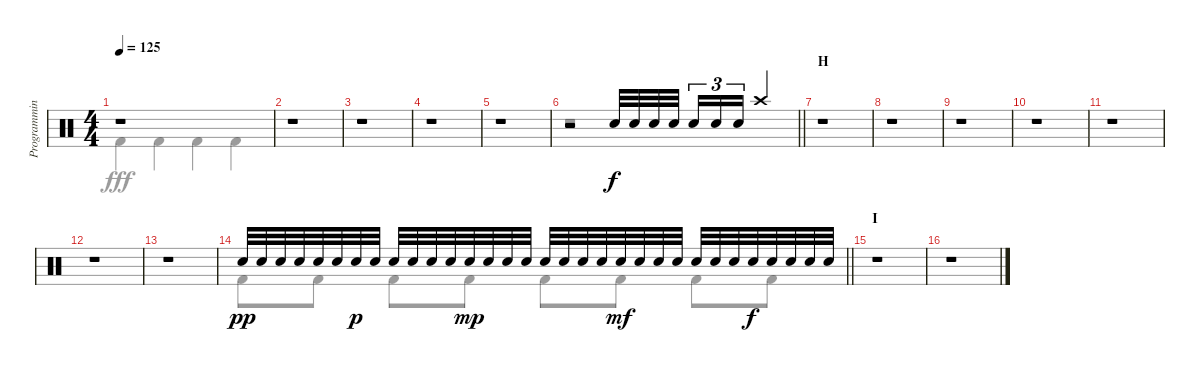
\track ("Programming" "Programmin") {instrument percussion}
\staff {score}
\articulation defaults
\voice
\ts (4 4)
\tempo 125
\clef neutral
\ks c
r.1{dy f} |
r.1 |
r.1 |
r.1 |
r.1 |
\barLineRight lightlight
r.2 "Electric Snare (hit)".32 "Electric Snare (hit)".32 "Electric Snare (hit)".32 "Electric Snare (hit)".32{beam splitsecondary} "Electric Snare (hit)".16{tu (3 2)} "Electric Snare (hit)".16{tu (3 2)} "Electric Snare (hit)".16{tu (3 2)} "Crash high (hit)".4 |
\section ("" "H")
r.1 |
r.1 |
r.1 |
r.1 |
r.1 |
r.1 |
r.1 |
\barLineRight lightlight "Electric Snare (hit)".32{dy pp} "Electric Snare (hit)".32 "Electric Snare (hit)".32 "Electric Snare (hit)".32 "Electric Snare (hit)".32 "Electric Snare (hit)".32 "Electric Snare (hit)".32{dy p} "Electric Snare (hit)".32 "Electric Snare (hit)".32 "Electric Snare (hit)".32 "Electric Snare (hit)".32 "Electric Snare (hit)".32 "Electric Snare (hit)".32{dy mp} "Electric Snare (hit)".32 "Electric Snare (hit)".32 "Electric Snare (hit)".32 "Electric Snare (hit)".32 "Electric Snare (hit)".32 "Electric Snare (hit)".32 "Electric Snare (hit)".32 "Electric Snare (hit)".32{dy mf} "Electric Snare (hit)".32 "Electric Snare (hit)".32 "Electric Snare (hit)".32 "Electric Snare (hit)".32 "Electric Snare (hit)".32 "Electric Snare (hit)".32 "Electric Snare (hit)".32{dy f} "Electric Snare (hit)".32 "Electric Snare (hit)".32 "Electric Snare (hit)".32 "Electric Snare (hit)".32
|
\section ("" "I")
r.1 |
r.1
\voice
\clef neutral
\ottava regular
\simile none
\ks c "Kick (hit) 2".4{dy fff} "Kick (hit) 2".4 "Kick (hit) 2".4 "Kick (hit) 2".4
|
r.1 |
r.1 |
r.1 |
r.1 |
\barLineRight lightlight
r.1 |
r.1 |
r.1 |
r.1 |
r.1 |
r.1 |
r.1 |
r.1 |
\barLineRight lightlight "Kick (hit) 2".8 "Kick (hit) 2".8 "Kick (hit) 2".8 "Kick (hit) 2".8 "Kick (hit) 2".8 "Kick (hit) 2".8 "Kick (hit) 2".8 "Kick (hit) 2".8
|
r.1 |
r.1
